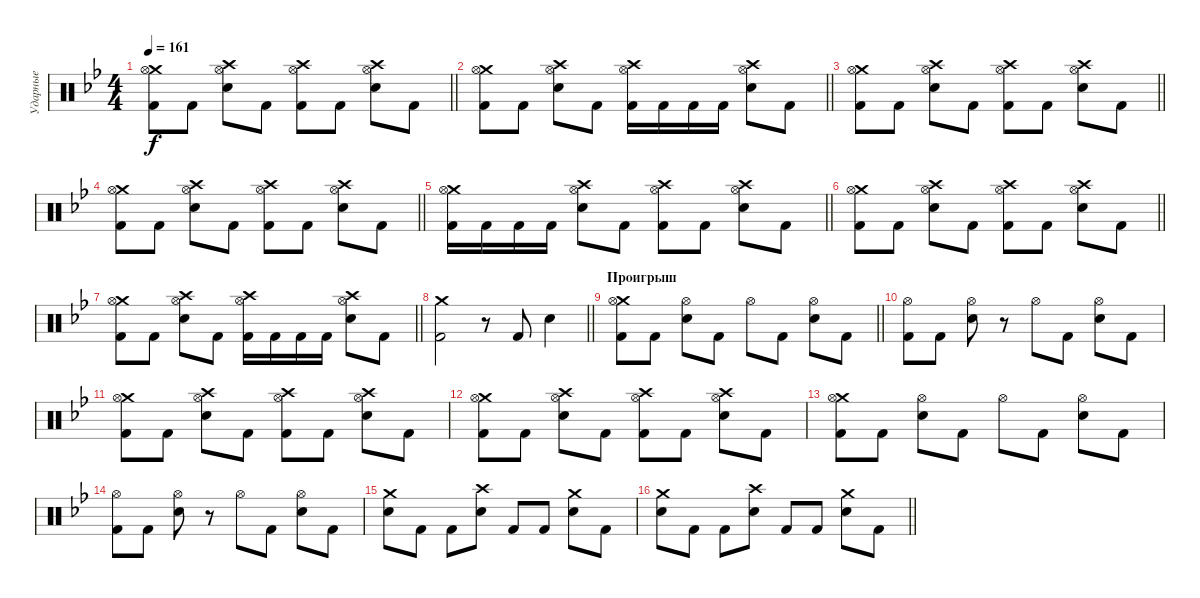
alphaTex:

\track ("Ударные" "Ударные") {instrument percussion}
\staff {score}
\articulation defaults
\ts (4 4)
\tempo 161
\clef neutral
\barLineRight lightlight
\ks gminor
("Crash medium (hit)" "Kick (hit) 2" "Hi-Hat (open)").8{dy f} "Kick (hit) 2".8 ("Crash high (hit)" "Electric Snare (hit)" "Hi-Hat (open)").8 "Kick (hit) 2".8 ("Crash high (hit)" "Kick (hit) 2" "Hi-Hat (open)").8 "Kick (hit) 2".8 ("Crash high (hit)" "Electric Snare (hit)" "Hi-Hat (open)").8 "Kick (hit) 2".8 |
\barLineRight lightlight
("Crash medium (hit)" "Kick (hit) 2" "Hi-Hat (open)").8 "Kick (hit) 2".8 ("Crash high (hit)" "Electric Snare (hit)" "Hi-Hat (open)").8 "Kick (hit) 2".8 ("Crash high (hit)" "Kick (hit) 2" "Hi-Hat (open)").16 "Kick (hit) 2".16 "Kick (hit) 2".16 "Kick (hit) 2".16 ("Crash high (hit)" "Electric Snare (hit)" "Hi-Hat (open)").8 "Kick (hit) 2".8 |
\barLineRight lightlight
("Crash medium (hit)" "Kick (hit) 2" "Hi-Hat (open)").8 "Kick (hit) 2".8 ("Crash high (hit)" "Electric Snare (hit)" "Hi-Hat (open)").8 "Kick (hit) 2".8 ("Crash high (hit)" "Kick (hit) 2" "Hi-Hat (open)").8 "Kick (hit) 2".8 ("Crash high (hit)" "Electric Snare (hit)" "Hi-Hat (open)").8 "Kick (hit) 2".8 |
\barLineRight lightlight
("Crash medium (hit)" "Kick (hit) 2" "Hi-Hat (open)").8 "Kick (hit) 2".8 ("Crash high (hit)" "Electric Snare (hit)" "Hi-Hat (open)").8 "Kick (hit) 2".8 ("Crash high (hit)" "Kick (hit) 2" "Hi-Hat (open)").8 "Kick (hit) 2".8 ("Crash high (hit)" "Electric Snare (hit)" "Hi-Hat (open)").8 "Kick (hit) 2".8 |
\barLineRight lightlight
("Crash medium (hit)" "Kick (hit) 2" "Hi-Hat (open)").16 "Kick (hit) 2".16 "Kick (hit) 2".16 "Kick (hit) 2".16 ("Crash high (hit)" "Electric Snare (hit)" "Hi-Hat (open)").8 "Kick (hit) 2".8 ("Crash high (hit)" "Kick (hit) 2" "Hi-Hat (open)").8 "Kick (hit) 2".8 ("Crash high (hit)" "Electric Snare (hit)" "Hi-Hat (open)").8 "Kick (hit) 2".8 |
\barLineRight lightlight
("Crash medium (hit)" "Kick (hit) 2" "Hi-Hat (open)").8 "Kick (hit) 2".8 ("Crash high (hit)" "Electric Snare (hit)" "Hi-Hat (open)").8 "Kick (hit) 2".8 ("Crash high (hit)" "Kick (hit) 2" "Hi-Hat (open)").8 "Kick (hit) 2".8 ("Crash high (hit)" "Electric Snare (hit)" "Hi-Hat (open)").8 "Kick (hit) 2".8 |
\barLineRight lightlight
("Crash medium (hit)" "Kick (hit) 2" "Hi-Hat (open)").8 "Kick (hit) 2".8 ("Crash high (hit)" "Electric Snare (hit)" "Hi-Hat (open)").8 "Kick (hit) 2".8 ("Crash high (hit)" "Kick (hit) 2" "Hi-Hat (open)").16 "Kick (hit) 2".16 "Kick (hit) 2".16 "Kick (hit) 2".16 ("Crash high (hit)" "Electric Snare (hit)" "Hi-Hat (open)").8 "Kick (hit) 2".8 |
\barLineRight lightlight
("Crash medium (hit)" "Kick (hit) 2").2 r.8 "Kick (hit) 2".8 "Electric Snare (hit)".4 |
\section ("" "Проигрыш")
\barLineRight lightlight
("Crash medium (hit)" "Kick (hit) 2" "Hi-Hat (open)").8 "Kick (hit) 2".8 ("Electric Snare (hit)" "Hi-Hat (open)").8 "Kick (hit) 2".8 "Hi-Hat (open)".8 "Kick (hit) 2".8 ("Electric Snare (hit)" "Hi-Hat (open)").8 "Kick (hit) 2".8 |
("Kick (hit) 2" "Hi-Hat (open)").8 "Kick (hit) 2".8 ("Electric Snare (hit)" "Hi-Hat (open)").8 r.8 "Hi-Hat (open)".8 "Kick (hit) 2".8 ("Electric Snare (hit)" "Hi-Hat (open)").8 "Kick (hit) 2".8 |
("Crash medium (hit)" "Kick (hit) 2" "Hi-Hat (open)").8 "Kick (hit) 2".8 ("Crash high (hit)" "Electric Snare (hit)" "Hi-Hat (open)").8 "Kick (hit) 2".8 ("Crash high (hit)" "Kick (hit) 2" "Hi-Hat (open)").8 "Kick (hit) 2".8 ("Crash high (hit)" "Electric Snare (hit)" "Hi-Hat (open)").8 "Kick (hit) 2".8 |
("Crash medium (hit)" "Kick (hit) 2" "Hi-Hat (open)").8 "Kick (hit) 2".8 ("Crash high (hit)" "Electric Snare (hit)" "Hi-Hat (open)").8 "Kick (hit) 2".8 ("Crash high (hit)" "Kick (hit) 2" "Hi-Hat (open)").8 "Kick (hit) 2".8 ("Crash high (hit)" "Electric Snare (hit)" "Hi-Hat (open)").8 "Kick (hit) 2".8 |
("Crash medium (hit)" "Kick (hit) 2" "Hi-Hat (open)").8 "Kick (hit) 2".8 ("Electric Snare (hit)" "Hi-Hat (open)").8 "Kick (hit) 2".8 "Hi-Hat (open)".8 "Kick (hit) 2".8 ("Electric Snare (hit)" "Hi-Hat (open)").8 "Kick (hit) 2".8 |
("Kick (hit) 2" "Hi-Hat (open)").8 "Kick (hit) 2".8 ("Electric Snare (hit)" "Hi-Hat (open)").8 r.8 "Hi-Hat (open)".8 "Kick (hit) 2".8 ("Electric Snare (hit)" "Hi-Hat (open)").8 "Kick (hit) 2".8 |
("Crash medium (hit)" "Electric Snare (hit)").8 "Kick (hit) 2".8 "Kick (hit) 2".8 ("Crash high (hit)" "Electric Snare (hit)").8 "Kick (hit) 2".8 "Kick (hit) 2".8 ("Crash medium (hit)" "Electric Snare (hit)").8 "Kick (hit) 2".8 |
\barLineRight lightlight
("Crash medium (hit)" "Electric Snare (hit)").8 "Kick (hit) 2".8 "Kick (hit) 2".8 ("Crash high (hit)" "Electric Snare (hit)").8 "Kick (hit) 2".8 "Kick (hit) 2".8 ("Crash medium (hit)" "Electric Snare (hit)").8 "Kick (hit) 2".8
